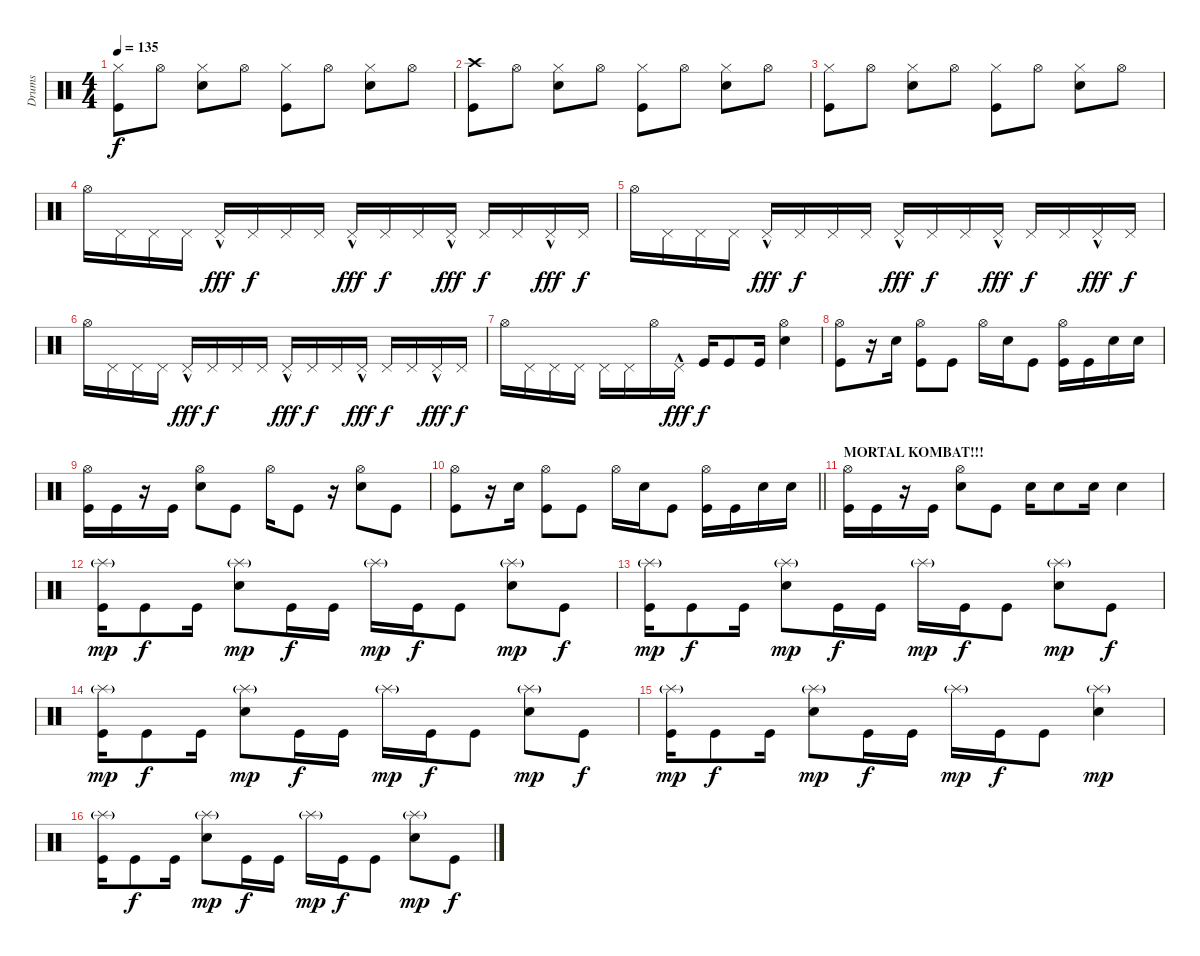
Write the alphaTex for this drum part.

\track ("Drums" "Drums") {instrument percussion}
\staff {score}
\articulation defaults
\ts (4 4)
\tempo 135
\clef neutral
\ks c
("Hi-Hat (closed)" "Kick (hit)").8{dy f} "Hi-Hat (open)".8 ("Hi-Hat (closed)" "Snare (hit) 2").8 "Hi-Hat (open)".8 ("Hi-Hat (closed)" "Kick (hit)").8 "Hi-Hat (open)".8 ("Hi-Hat (closed)" "Snare (hit) 2").8 "Hi-Hat (open)".8 |
("Crash high (hit)" "Kick (hit)").8 "Hi-Hat (open)".8 ("Hi-Hat (closed)" "Snare (hit) 2").8 "Hi-Hat (open)".8 ("Hi-Hat (closed)" "Kick (hit)").8 "Hi-Hat (open)".8 ("Hi-Hat (closed)" "Snare (hit) 2").8 "Hi-Hat (open)".8 |
("Hi-Hat (closed)" "Kick (hit)").8 "Hi-Hat (open)".8 ("Hi-Hat (closed)" "Snare (hit) 2").8 "Hi-Hat (open)".8 ("Hi-Hat (closed)" "Kick (hit)").8 "Hi-Hat (open)".8 ("Hi-Hat (closed)" "Snare (hit) 2").8 "Hi-Hat (open)".8 |
"Hi-Hat (open)".16 "Pedal Hi-Hat (hit)".16 "Pedal Hi-Hat (hit)".16 "Pedal Hi-Hat (hit)".16 "Pedal Hi-Hat (hit)"{hac}.16{dy fff} "Pedal Hi-Hat (hit)".16{dy f} "Pedal Hi-Hat (hit)".16 "Pedal Hi-Hat (hit)".16 "Pedal Hi-Hat (hit)"{hac}.16{dy fff} "Pedal Hi-Hat (hit)".16{dy f} "Pedal Hi-Hat (hit)".16 "Pedal Hi-Hat (hit)"{hac}.16{dy fff} "Pedal Hi-Hat (hit)".16{dy f} "Pedal Hi-Hat (hit)".16 "Pedal Hi-Hat (hit)"{hac}.16{dy fff} "Pedal Hi-Hat (hit)".16{dy f} |
"Hi-Hat (open)".16 "Pedal Hi-Hat (hit)".16 "Pedal Hi-Hat (hit)".16 "Pedal Hi-Hat (hit)".16 "Pedal Hi-Hat (hit)"{hac}.16{dy fff} "Pedal Hi-Hat (hit)".16{dy f} "Pedal Hi-Hat (hit)".16 "Pedal Hi-Hat (hit)".16 "Pedal Hi-Hat (hit)"{hac}.16{dy fff} "Pedal Hi-Hat (hit)".16{dy f} "Pedal Hi-Hat (hit)".16 "Pedal Hi-Hat (hit)"{hac}.16{dy fff} "Pedal Hi-Hat (hit)".16{dy f} "Pedal Hi-Hat (hit)".16 "Pedal Hi-Hat (hit)"{hac}.16{dy fff} "Pedal Hi-Hat (hit)".16{dy f} |
"Hi-Hat (open)".16 "Pedal Hi-Hat (hit)".16 "Pedal Hi-Hat (hit)".16 "Pedal Hi-Hat (hit)".16 "Pedal Hi-Hat (hit)"{hac}.16{dy fff} "Pedal Hi-Hat (hit)".16{dy f} "Pedal Hi-Hat (hit)".16 "Pedal Hi-Hat (hit)".16 "Pedal Hi-Hat (hit)"{hac}.16{dy fff} "Pedal Hi-Hat (hit)".16{dy f} "Pedal Hi-Hat (hit)".16 "Pedal Hi-Hat (hit)"{hac}.16{dy fff} "Pedal Hi-Hat (hit)".16{dy f} "Pedal Hi-Hat (hit)".16 "Pedal Hi-Hat (hit)"{hac}.16{dy fff} "Pedal Hi-Hat (hit)".16{dy f} |
"Hi-Hat (open)".16 "Pedal Hi-Hat (hit)".16 "Pedal Hi-Hat (hit)".16 "Pedal Hi-Hat (hit)".16 "Pedal Hi-Hat (hit)".16 "Pedal Hi-Hat (hit)".16 "Hi-Hat (open)".16 "Pedal Hi-Hat (hit)"{hac}.16{dy fff} "Kick (hit)".16{dy f} "Kick (hit)".8 "Kick (hit)".16 ("Hi-Hat (open)" "Snare (hit) 2").4 |
("Hi-Hat (open)" "Kick (hit)").8 r.16 "Snare (hit) 2".16 ("Hi-Hat (open)" "Kick (hit)").8 "Kick (hit)".8 "Hi-Hat (open)".16 "Snare (hit) 2".16 "Kick (hit)".8 ("Hi-Hat (open)" "Kick (hit)").16 "Kick (hit)".16 "Snare (hit) 2".16 "Snare (hit) 2".16 |
("Hi-Hat (open)" "Kick (hit)").16 "Kick (hit)".16 r.16 "Kick (hit)".16 ("Hi-Hat (open)" "Snare (hit) 2").8 "Kick (hit)".8 "Hi-Hat (open)".16 "Kick (hit)".8 r.16 ("Hi-Hat (open)" "Snare (hit) 2").8 "Kick (hit)".8 |
\barLineRight lightlight
("Hi-Hat (open)" "Kick (hit)").8 r.16 "Snare (hit) 2".16 ("Hi-Hat (open)" "Kick (hit)").8 "Kick (hit)".8 "Hi-Hat (open)".16 "Snare (hit) 2".16 "Kick (hit)".8 ("Hi-Hat (open)" "Kick (hit)").16 "Kick (hit)".16 "Snare (hit) 2".16 "Snare (hit) 2".16 |
\section ("" "MORTAL KOMBAT!!!")
("Hi-Hat (open)" "Kick (hit)").16 "Kick (hit)".16 r.16 "Kick (hit)".16 ("Hi-Hat (open)" "Snare (hit) 2").8 "Kick (hit)".8 "Snare (hit) 2".16 "Snare (hit) 2".8 "Snare (hit) 2".16 "Snare (hit) 2".4 |
("Splash (hit)"{g} "Kick (hit)").16{dy mp} "Kick (hit)".8{dy f} "Kick (hit)".16 ("Splash (hit)"{g} "Snare (hit) 2").8{dy mp} "Kick (hit)".16{dy f} "Kick (hit)".16 "Splash (hit)"{g}.16{dy mp} "Kick (hit)".16{dy f} "Kick (hit)".8 ("Splash (hit)"{g} "Snare (hit) 2").8{dy mp} "Kick (hit)".8{dy f} |
("Splash (hit)"{g} "Kick (hit)").16{dy mp} "Kick (hit)".8{dy f} "Kick (hit)".16 ("Splash (hit)"{g} "Snare (hit) 2").8{dy mp} "Kick (hit)".16{dy f} "Kick (hit)".16 "Splash (hit)"{g}.16{dy mp} "Kick (hit)".16{dy f} "Kick (hit)".8 ("Splash (hit)"{g} "Snare (hit) 2").8{dy mp} "Kick (hit)".8{dy f} |
("Splash (hit)"{g} "Kick (hit)").16{dy mp} "Kick (hit)".8{dy f} "Kick (hit)".16 ("Splash (hit)"{g} "Snare (hit) 2").8{dy mp} "Kick (hit)".16{dy f} "Kick (hit)".16 "Splash (hit)"{g}.16{dy mp} "Kick (hit)".16{dy f} "Kick (hit)".8 ("Splash (hit)"{g} "Snare (hit) 2").8{dy mp} "Kick (hit)".8{dy f} |
("Splash (hit)"{g} "Kick (hit)").16{dy mp} "Kick (hit)".8{dy f} "Kick (hit)".16 ("Splash (hit)"{g} "Snare (hit) 2").8{dy mp} "Kick (hit)".16{dy f} "Kick (hit)".16 "Splash (hit)"{g}.16{dy mp} "Kick (hit)".16{dy f} "Kick (hit)".8 ("Splash (hit)"{g} "Snare (hit) 2").4{dy mp} |
("Splash (hit)"{g} "Kick (hit)").16 "Kick (hit)".8{dy f} "Kick (hit)".16 ("Splash (hit)"{g} "Snare (hit) 2").8{dy mp} "Kick (hit)".16{dy f} "Kick (hit)".16 "Splash (hit)"{g}.16{dy mp} "Kick (hit)".16{dy f} "Kick (hit)".8 ("Splash (hit)"{g} "Snare (hit) 2").8{dy mp} "Kick (hit)".8{dy f}
